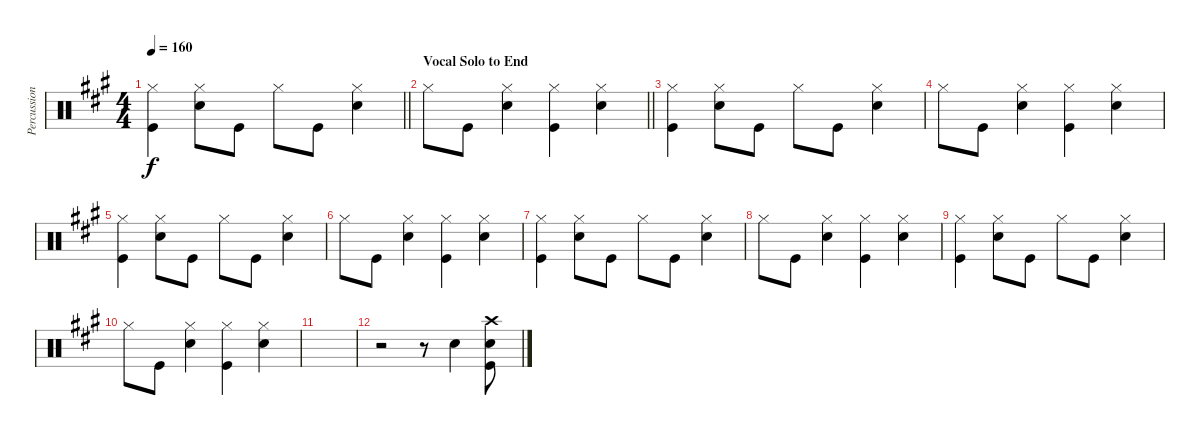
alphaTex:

\track ("Percussion" "Percussion") {instrument percussion}
\staff {score}
\articulation defaults
\ts (4 4)
\tempo 160
\clef neutral
\barLineRight lightlight
\ks a
("Hi-Hat (closed)" "Kick (hit)").4{dy f} ("Snare (hit) 2" "Hi-Hat (closed)").8 "Kick (hit)".8 "Hi-Hat (closed)".8 "Kick (hit)".8 ("Snare (hit) 2" "Hi-Hat (closed)").4 |
\section ("" "Vocal Solo to End")
\barLineRight lightlight "Hi-Hat (closed)".8 "Kick (hit)".8
("Snare (hit) 2" "Hi-Hat (closed)").4 ("Kick (hit)" "Hi-Hat (closed)").4 ("Snare (hit) 2" "Hi-Hat (closed)").4 |
("Hi-Hat (closed)" "Kick (hit)").4 ("Snare (hit) 2" "Hi-Hat (closed)").8 "Kick (hit)".8 "Hi-Hat (closed)".8 "Kick (hit)".8 ("Snare (hit) 2" "Hi-Hat (closed)").4 |
"Hi-Hat (closed)".8 "Kick (hit)".8 ("Snare (hit) 2" "Hi-Hat (closed)").4 ("Kick (hit)" "Hi-Hat (closed)").4 ("Snare (hit) 2" "Hi-Hat (closed)").4 |
("Hi-Hat (closed)" "Kick (hit)").4 ("Snare (hit) 2" "Hi-Hat (closed)").8 "Kick (hit)".8 "Hi-Hat (closed)".8 "Kick (hit)".8 ("Snare (hit) 2" "Hi-Hat (closed)").4 |
"Hi-Hat (closed)".8 "Kick (hit)".8 ("Snare (hit) 2" "Hi-Hat (closed)").4 ("Kick (hit)" "Hi-Hat (closed)").4 ("Snare (hit) 2" "Hi-Hat (closed)").4 |
("Hi-Hat (closed)" "Kick (hit)").4 ("Snare (hit) 2" "Hi-Hat (closed)").8 "Kick (hit)".8 "Hi-Hat (closed)".8 "Kick (hit)".8 ("Snare (hit) 2" "Hi-Hat (closed)").4 |
"Hi-Hat (closed)".8 "Kick (hit)".8 ("Snare (hit) 2" "Hi-Hat (closed)").4 ("Kick (hit)" "Hi-Hat (closed)").4 ("Snare (hit) 2" "Hi-Hat (closed)").4 |
("Hi-Hat (closed)" "Kick (hit)").4 ("Snare (hit) 2" "Hi-Hat (closed)").8 "Kick (hit)".8 "Hi-Hat (closed)".8 "Kick (hit)".8 ("Snare (hit) 2" "Hi-Hat (closed)").4 |
"Hi-Hat (closed)".8 "Kick (hit)".8 ("Snare (hit) 2" "Hi-Hat (closed)").4 ("Kick (hit)" "Hi-Hat (closed)").4 ("Snare (hit) 2" "Hi-Hat (closed)").4 |
|
r.2 r.8 "Snare (hit) 2".4 ("Kick (hit)" "Snare (hit) 2" "Crash high (hit)").8
